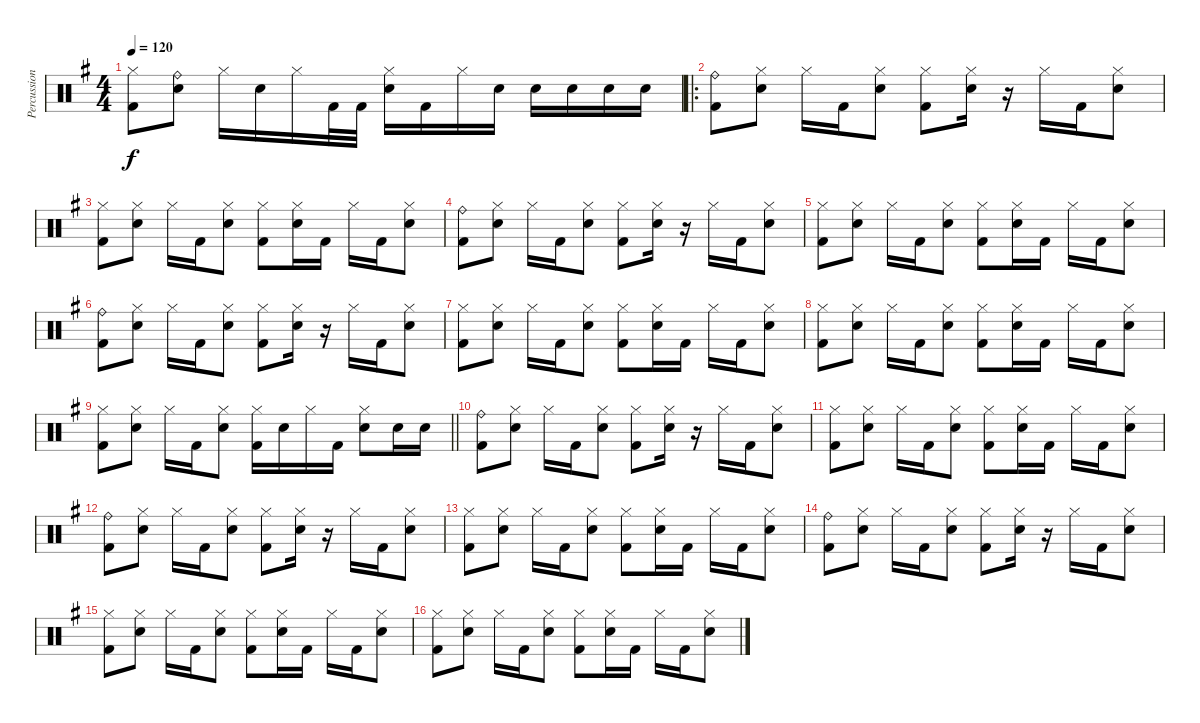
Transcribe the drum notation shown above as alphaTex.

\track ("Percussion" "Percussion") {instrument percussion}
\staff {score}
\articulation defaults
\ts (4 4)
\tempo 120
\clef neutral
\ks eminor
("Hi-Hat (closed)" "Kick (hit) 2").8{dy f} ("Ride (bell)" "Snare (hit) 2").8 "Hi-Hat (closed)".16 "Snare (hit) 2".16 "Hi-Hat (closed)".16 "Kick (hit) 2".32 "Kick (hit) 2".32 ("Hi-Hat (closed)" "Snare (hit) 2").16 "Kick (hit) 2".16 "Hi-Hat (closed)".16 "Snare (hit) 2".16 "Snare (hit) 2".16 "Snare (hit) 2".16 "Snare (hit) 2".16 "Snare (hit) 2".16 |
\ro
("Ride (bell)" "Kick (hit) 2").8 ("Hi-Hat (closed)" "Snare (hit) 2").8 "Hi-Hat (closed)".16 "Kick (hit) 2".16 ("Hi-Hat (closed)" "Snare (hit) 2").8 ("Hi-Hat (closed)" "Kick (hit) 2").8 ("Hi-Hat (closed)" "Snare (hit) 2").16 r.16 "Hi-Hat (closed)".16 "Kick (hit) 2".16 ("Hi-Hat (closed)" "Snare (hit) 2").8 |
("Hi-Hat (closed)" "Kick (hit) 2").8 ("Hi-Hat (closed)" "Snare (hit) 2").8 "Hi-Hat (closed)".16 "Kick (hit) 2".16 ("Hi-Hat (closed)" "Snare (hit) 2").8 ("Hi-Hat (closed)" "Kick (hit) 2").8 ("Hi-Hat (closed)" "Snare (hit) 2").16 "Kick (hit) 2".16 "Hi-Hat (closed)".16 "Kick (hit) 2".16 ("Hi-Hat (closed)" "Snare (hit) 2").8 |
("Ride (bell)" "Kick (hit) 2").8 ("Hi-Hat (closed)" "Snare (hit) 2").8 "Hi-Hat (closed)".16 "Kick (hit) 2".16 ("Hi-Hat (closed)" "Snare (hit) 2").8 ("Hi-Hat (closed)" "Kick (hit) 2").8 ("Hi-Hat (closed)" "Snare (hit) 2").16 r.16 "Hi-Hat (closed)".16 "Kick (hit) 2".16 ("Hi-Hat (closed)" "Snare (hit) 2").8 |
("Hi-Hat (closed)" "Kick (hit) 2").8 ("Hi-Hat (closed)" "Snare (hit) 2").8 "Hi-Hat (closed)".16 "Kick (hit) 2".16 ("Hi-Hat (closed)" "Snare (hit) 2").8 ("Hi-Hat (closed)" "Kick (hit) 2").8 ("Hi-Hat (closed)" "Snare (hit) 2").16 "Kick (hit) 2".16 "Hi-Hat (closed)".16 "Kick (hit) 2".16 ("Hi-Hat (closed)" "Snare (hit) 2").8 |
("Ride (bell)" "Kick (hit) 2").8 ("Hi-Hat (closed)" "Snare (hit) 2").8 "Hi-Hat (closed)".16 "Kick (hit) 2".16 ("Hi-Hat (closed)" "Snare (hit) 2").8 ("Hi-Hat (closed)" "Kick (hit) 2").8 ("Hi-Hat (closed)" "Snare (hit) 2").16 r.16 "Hi-Hat (closed)".16 "Kick (hit) 2".16 ("Hi-Hat (closed)" "Snare (hit) 2").8 |
("Hi-Hat (closed)" "Kick (hit) 2").8 ("Hi-Hat (closed)" "Snare (hit) 2").8 "Hi-Hat (closed)".16 "Kick (hit) 2".16 ("Hi-Hat (closed)" "Snare (hit) 2").8 ("Hi-Hat (closed)" "Kick (hit) 2").8 ("Hi-Hat (closed)" "Snare (hit) 2").16 "Kick (hit) 2".16 "Hi-Hat (closed)".16 "Kick (hit) 2".16 ("Hi-Hat (closed)" "Snare (hit) 2").8 |
("Hi-Hat (closed)" "Kick (hit) 2").8 ("Hi-Hat (closed)" "Snare (hit) 2").8 "Hi-Hat (closed)".16 "Kick (hit) 2".16 ("Hi-Hat (closed)" "Snare (hit) 2").8 ("Hi-Hat (closed)" "Kick (hit) 2").8 ("Hi-Hat (closed)" "Snare (hit) 2").16 "Kick (hit) 2".16 "Hi-Hat (closed)".16 "Kick (hit) 2".16 ("Hi-Hat (closed)" "Snare (hit) 2").8 |
\barLineRight lightlight
("Hi-Hat (closed)" "Kick (hit) 2").8 ("Hi-Hat (closed)" "Snare (hit) 2").8 "Hi-Hat (closed)".16 "Kick (hit) 2".16 ("Hi-Hat (closed)" "Snare (hit) 2").8 ("Hi-Hat (closed)" "Kick (hit) 2").16 "Snare (hit) 2".16 "Hi-Hat (closed)".16 "Kick (hit) 2".16 ("Hi-Hat (closed)" "Snare (hit) 2").8 "Snare (hit) 2".16 "Snare (hit) 2".16 |
("Ride (bell)" "Kick (hit) 2").8 ("Hi-Hat (closed)" "Snare (hit) 2").8 "Hi-Hat (closed)".16 "Kick (hit) 2".16 ("Hi-Hat (closed)" "Snare (hit) 2").8 ("Hi-Hat (closed)" "Kick (hit) 2").8 ("Hi-Hat (closed)" "Snare (hit) 2").16 r.16 "Hi-Hat (closed)".16 "Kick (hit) 2".16 ("Hi-Hat (closed)" "Snare (hit) 2").8 |
("Hi-Hat (closed)" "Kick (hit) 2").8 ("Hi-Hat (closed)" "Snare (hit) 2").8 "Hi-Hat (closed)".16 "Kick (hit) 2".16 ("Hi-Hat (closed)" "Snare (hit) 2").8 ("Hi-Hat (closed)" "Kick (hit) 2").8 ("Hi-Hat (closed)" "Snare (hit) 2").16 "Kick (hit) 2".16 "Hi-Hat (closed)".16 "Kick (hit) 2".16 ("Hi-Hat (closed)" "Snare (hit) 2").8 |
("Ride (bell)" "Kick (hit) 2").8 ("Hi-Hat (closed)" "Snare (hit) 2").8 "Hi-Hat (closed)".16 "Kick (hit) 2".16 ("Hi-Hat (closed)" "Snare (hit) 2").8 ("Hi-Hat (closed)" "Kick (hit) 2").8 ("Hi-Hat (closed)" "Snare (hit) 2").16 r.16 "Hi-Hat (closed)".16 "Kick (hit) 2".16 ("Hi-Hat (closed)" "Snare (hit) 2").8 |
("Hi-Hat (closed)" "Kick (hit) 2").8 ("Hi-Hat (closed)" "Snare (hit) 2").8 "Hi-Hat (closed)".16 "Kick (hit) 2".16 ("Hi-Hat (closed)" "Snare (hit) 2").8 ("Hi-Hat (closed)" "Kick (hit) 2").8 ("Hi-Hat (closed)" "Snare (hit) 2").16 "Kick (hit) 2".16 "Hi-Hat (closed)".16 "Kick (hit) 2".16 ("Hi-Hat (closed)" "Snare (hit) 2").8 |
("Ride (bell)" "Kick (hit) 2").8 ("Hi-Hat (closed)" "Snare (hit) 2").8 "Hi-Hat (closed)".16 "Kick (hit) 2".16 ("Hi-Hat (closed)" "Snare (hit) 2").8 ("Hi-Hat (closed)" "Kick (hit) 2").8 ("Hi-Hat (closed)" "Snare (hit) 2").16 r.16 "Hi-Hat (closed)".16 "Kick (hit) 2".16 ("Hi-Hat (closed)" "Snare (hit) 2").8 |
("Hi-Hat (closed)" "Kick (hit) 2").8 ("Hi-Hat (closed)" "Snare (hit) 2").8 "Hi-Hat (closed)".16 "Kick (hit) 2".16 ("Hi-Hat (closed)" "Snare (hit) 2").8 ("Hi-Hat (closed)" "Kick (hit) 2").8 ("Hi-Hat (closed)" "Snare (hit) 2").16 "Kick (hit) 2".16 "Hi-Hat (closed)".16 "Kick (hit) 2".16 ("Hi-Hat (closed)" "Snare (hit) 2").8 |
("Hi-Hat (closed)" "Kick (hit) 2").8 ("Hi-Hat (closed)" "Snare (hit) 2").8 "Hi-Hat (closed)".16 "Kick (hit) 2".16 ("Hi-Hat (closed)" "Snare (hit) 2").8 ("Hi-Hat (closed)" "Kick (hit) 2").8 ("Hi-Hat (closed)" "Snare (hit) 2").16 "Kick (hit) 2".16 "Hi-Hat (closed)".16 "Kick (hit) 2".16 ("Hi-Hat (closed)" "Snare (hit) 2").8
